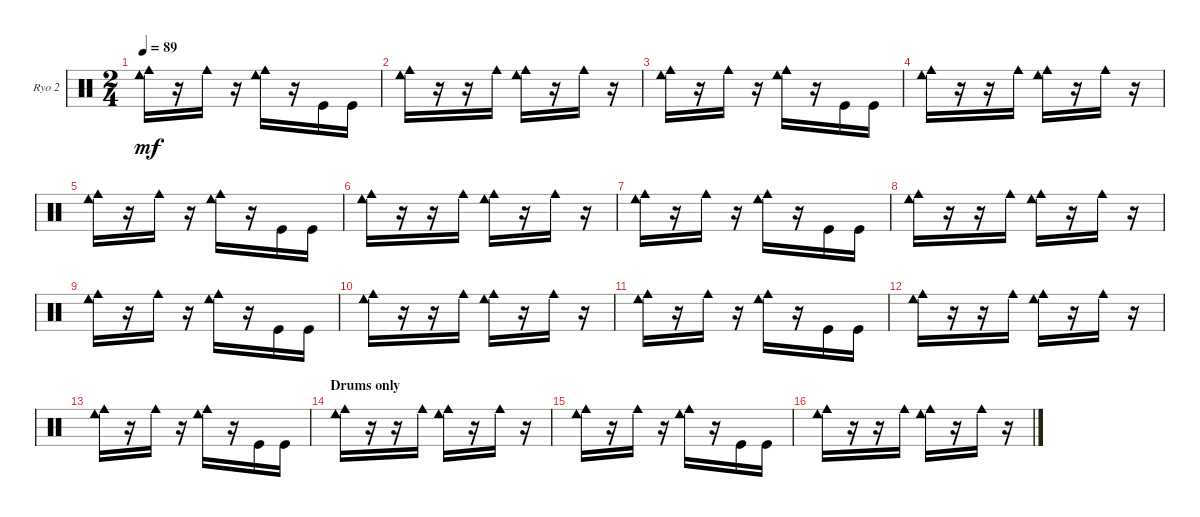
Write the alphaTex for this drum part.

\bracketExtendMode groupsimilarinstruments
\firstSystemTrackNameOrientation horizontal
\otherSystemsTrackNameOrientation horizontal
\track ("Ryo2 [Additional Drums]" "Ryo 2") {instrument percussion}
\staff {score}
\articulation defaults
\ts (2 4)
\tempo 89
\clef neutral
\scale
0.356322
\ks c
("Cowbell low (hit)" "Cowbell medium (hit)").16{dy mf} r.16 "Cowbell medium (hit)".16 r.16 ("Cowbell medium (hit)" "Cowbell low (hit)").16 r.16 "Kick (hit)".16 "Kick (hit)".16 |
("Cowbell low (hit)" "Cowbell medium (hit)").16 r.16 r.16 "Cowbell medium (hit)".16 ("Cowbell medium (hit)" "Cowbell low (hit)").16 r.16 "Cowbell medium (hit)".16 r.16 |
("Cowbell low (hit)" "Cowbell medium (hit)").16 r.16 "Cowbell medium (hit)".16 r.16 ("Cowbell medium (hit)" "Cowbell low (hit)").16 r.16 "Kick (hit)".16 "Kick (hit)".16 |
("Cowbell low (hit)" "Cowbell medium (hit)").16 r.16 r.16 "Cowbell medium (hit)".16 ("Cowbell medium (hit)" "Cowbell low (hit)").16 r.16 "Cowbell medium (hit)".16 r.16 |
("Cowbell low (hit)" "Cowbell medium (hit)").16 r.16 "Cowbell medium (hit)".16 r.16 ("Cowbell medium (hit)" "Cowbell low (hit)").16 r.16 "Kick (hit)".16 "Kick (hit)".16 |
("Cowbell low (hit)" "Cowbell medium (hit)").16 r.16 r.16 "Cowbell medium (hit)".16 ("Cowbell medium (hit)" "Cowbell low (hit)").16 r.16 "Cowbell medium (hit)".16 r.16 |
("Cowbell low (hit)" "Cowbell medium (hit)").16 r.16 "Cowbell medium (hit)".16 r.16 ("Cowbell medium (hit)" "Cowbell low (hit)").16 r.16 "Kick (hit)".16 "Kick (hit)".16 |
("Cowbell low (hit)" "Cowbell medium (hit)").16 r.16 r.16 "Cowbell medium (hit)".16 ("Cowbell medium (hit)" "Cowbell low (hit)").16 r.16 "Cowbell medium (hit)".16 r.16 |
("Cowbell low (hit)" "Cowbell medium (hit)").16 r.16 "Cowbell medium (hit)".16 r.16 ("Cowbell medium (hit)" "Cowbell low (hit)").16 r.16 "Kick (hit)".16 "Kick (hit)".16 |
("Cowbell low (hit)" "Cowbell medium (hit)").16 r.16 r.16 "Cowbell medium (hit)".16 ("Cowbell medium (hit)" "Cowbell low (hit)").16 r.16 "Cowbell medium (hit)".16 r.16 |
("Cowbell low (hit)" "Cowbell medium (hit)").16 r.16 "Cowbell medium (hit)".16 r.16 ("Cowbell medium (hit)" "Cowbell low (hit)").16 r.16 "Kick (hit)".16 "Kick (hit)".16 |
("Cowbell low (hit)" "Cowbell medium (hit)").16 r.16 r.16 "Cowbell medium (hit)".16 ("Cowbell medium (hit)" "Cowbell low (hit)").16 r.16 "Cowbell medium (hit)".16 r.16 |
("Cowbell low (hit)" "Cowbell medium (hit)").16 r.16 "Cowbell medium (hit)".16 r.16 ("Cowbell medium (hit)" "Cowbell low (hit)").16 r.16 "Kick (hit)".16 "Kick (hit)".16 |
\section ("" "Drums only")
\scale
0.321839 ("Cowbell low (hit)" "Cowbell medium (hit)").16 r.16 r.16 "Cowbell medium (hit)".16 ("Cowbell medium (hit)" "Cowbell low (hit)").16 r.16 "Cowbell medium (hit)".16 r.16 |
\scale
0.333333 ("Cowbell low (hit)" "Cowbell medium (hit)").16 r.16 "Cowbell medium (hit)".16 r.16 ("Cowbell medium (hit)" "Cowbell low (hit)").16 r.16 "Kick (hit)".16 "Kick (hit)".16 |
\scale
0.333333 ("Cowbell low (hit)" "Cowbell medium (hit)").16 r.16 r.16 "Cowbell medium (hit)".16 ("Cowbell medium (hit)" "Cowbell low (hit)").16 r.16 "Cowbell medium (hit)".16 r.16
